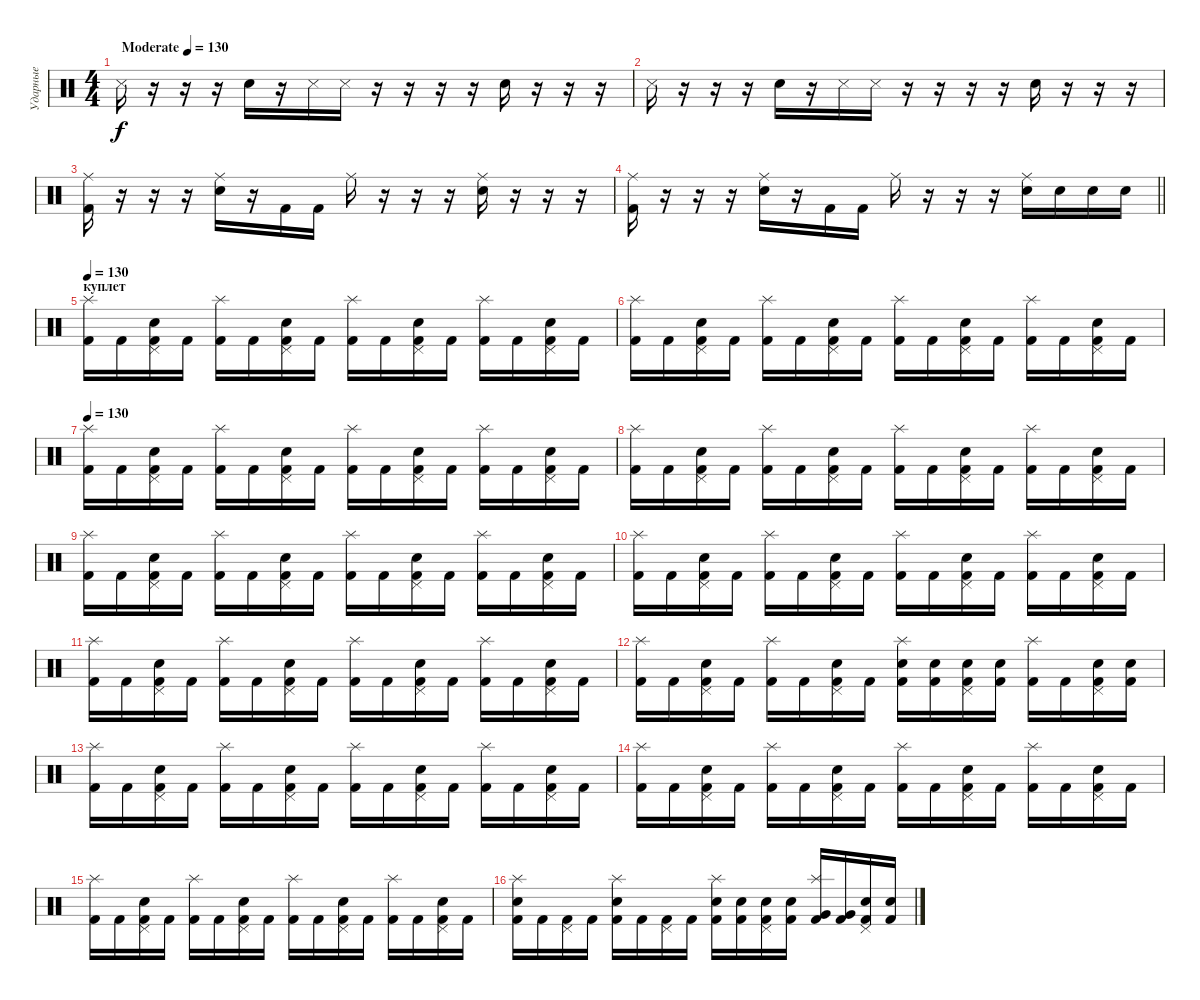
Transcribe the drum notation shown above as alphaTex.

\track ("Ударные" "Ударные") {instrument percussion}
\staff {score}
\articulation defaults
\ts (4 4)
\tempo (130 "Moderate")
\clef neutral
\ks c "Snare (side stick) 3".16{dy f}
r.16 r.16 r.16 "Hand Clap (hit)".16 r.16 "Snare (side stick) 3".16 "Snare (side stick) 3".16 r.16 r.16 r.16 r.16 "Hand Clap (hit)".16 r.16 r.16 r.16 |
"Snare (side stick) 3".16 r.16 r.16 r.16 "Hand Clap (hit)".16 r.16 "Snare (side stick) 3".16 "Snare (side stick) 3".16 r.16 r.16 r.16 r.16 "Hand Clap (hit)".16 r.16 r.16 r.16 |
("Ride (middle)" "Kick (hit) 2").16 r.16 r.16 r.16 ("Ride (middle)" "Electric Snare (hit)").16 r.16 "Kick (hit) 2".16 "Kick (hit) 2".16 "Ride (middle)".16 r.16 r.16 r.16 ("Ride (middle)" "Electric Snare (hit)").16 r.16 r.16 r.16 |
\barLineRight lightlight
("Ride (middle)" "Kick (hit) 2").16 r.16 r.16 r.16 ("Ride (middle)" "Electric Snare (hit)").16 r.16 "Kick (hit) 2".16 "Kick (hit) 2".16 "Ride (middle)".16 r.16 r.16 r.16 ("Ride (middle)" "Electric Snare (hit)").16 "Electric Snare (hit)".16 "Electric Snare (hit)".16 "Electric Snare (hit)".16 |
\section ("" "куплет")
\tempo 130
("Splash (hit)" "Kick (hit) 2").16 "Kick (hit) 2".16 ("Pedal Hi-Hat (hit)" "Electric Snare (hit)" "Kick (hit) 2").16 "Kick (hit) 2".16 ("Splash (hit)" "Kick (hit) 2").16 "Kick (hit) 2".16 ("Pedal Hi-Hat (hit)" "Electric Snare (hit)" "Kick (hit) 2").16 "Kick (hit) 2".16 ("Splash (hit)" "Kick (hit) 2").16 "Kick (hit) 2".16 ("Pedal Hi-Hat (hit)" "Electric Snare (hit)" "Kick (hit) 2").16 "Kick (hit) 2".16 ("Splash (hit)" "Kick (hit) 2").16 "Kick (hit) 2".16 ("Pedal Hi-Hat (hit)" "Electric Snare (hit)" "Kick (hit) 2").16 "Kick (hit) 2".16 |
("Splash (hit)" "Kick (hit) 2").16 "Kick (hit) 2".16 ("Pedal Hi-Hat (hit)" "Electric Snare (hit)" "Kick (hit) 2").16 "Kick (hit) 2".16 ("Splash (hit)" "Kick (hit) 2").16 "Kick (hit) 2".16 ("Pedal Hi-Hat (hit)" "Electric Snare (hit)" "Kick (hit) 2").16 "Kick (hit) 2".16 ("Splash (hit)" "Kick (hit) 2").16 "Kick (hit) 2".16 ("Pedal Hi-Hat (hit)" "Electric Snare (hit)" "Kick (hit) 2").16 "Kick (hit) 2".16 ("Splash (hit)" "Kick (hit) 2").16 "Kick (hit) 2".16 ("Pedal Hi-Hat (hit)" "Electric Snare (hit)" "Kick (hit) 2").16 "Kick (hit) 2".16 |
\tempo 130
("Splash (hit)" "Kick (hit) 2").16 "Kick (hit) 2".16 ("Pedal Hi-Hat (hit)" "Electric Snare (hit)" "Kick (hit) 2").16 "Kick (hit) 2".16 ("Splash (hit)" "Kick (hit) 2").16 "Kick (hit) 2".16 ("Pedal Hi-Hat (hit)" "Electric Snare (hit)" "Kick (hit) 2").16 "Kick (hit) 2".16 ("Splash (hit)" "Kick (hit) 2").16 "Kick (hit) 2".16 ("Pedal Hi-Hat (hit)" "Electric Snare (hit)" "Kick (hit) 2").16 "Kick (hit) 2".16 ("Splash (hit)" "Kick (hit) 2").16 "Kick (hit) 2".16 ("Pedal Hi-Hat (hit)" "Electric Snare (hit)" "Kick (hit) 2").16 "Kick (hit) 2".16 |
("Splash (hit)" "Kick (hit) 2").16 "Kick (hit) 2".16 ("Pedal Hi-Hat (hit)" "Electric Snare (hit)" "Kick (hit) 2").16 "Kick (hit) 2".16 ("Splash (hit)" "Kick (hit) 2").16 "Kick (hit) 2".16 ("Pedal Hi-Hat (hit)" "Electric Snare (hit)" "Kick (hit) 2").16 "Kick (hit) 2".16 ("Splash (hit)" "Kick (hit) 2").16 "Kick (hit) 2".16 ("Pedal Hi-Hat (hit)" "Electric Snare (hit)" "Kick (hit) 2").16 "Kick (hit) 2".16 ("Splash (hit)" "Kick (hit) 2").16 "Kick (hit) 2".16 ("Pedal Hi-Hat (hit)" "Electric Snare (hit)" "Kick (hit) 2").16 "Kick (hit) 2".16 |
("Splash (hit)" "Kick (hit) 2").16 "Kick (hit) 2".16 ("Pedal Hi-Hat (hit)" "Electric Snare (hit)" "Kick (hit) 2").16 "Kick (hit) 2".16 ("Splash (hit)" "Kick (hit) 2").16 "Kick (hit) 2".16 ("Pedal Hi-Hat (hit)" "Electric Snare (hit)" "Kick (hit) 2").16 "Kick (hit) 2".16 ("Splash (hit)" "Kick (hit) 2").16 "Kick (hit) 2".16 ("Pedal Hi-Hat (hit)" "Electric Snare (hit)" "Kick (hit) 2").16 "Kick (hit) 2".16 ("Splash (hit)" "Kick (hit) 2").16 "Kick (hit) 2".16 ("Pedal Hi-Hat (hit)" "Electric Snare (hit)" "Kick (hit) 2").16 "Kick (hit) 2".16 |
("Splash (hit)" "Kick (hit) 2").16 "Kick (hit) 2".16 ("Pedal Hi-Hat (hit)" "Electric Snare (hit)" "Kick (hit) 2").16 "Kick (hit) 2".16 ("Splash (hit)" "Kick (hit) 2").16 "Kick (hit) 2".16 ("Pedal Hi-Hat (hit)" "Electric Snare (hit)" "Kick (hit) 2").16 "Kick (hit) 2".16 ("Splash (hit)" "Kick (hit) 2").16 "Kick (hit) 2".16 ("Pedal Hi-Hat (hit)" "Electric Snare (hit)" "Kick (hit) 2").16 "Kick (hit) 2".16 ("Splash (hit)" "Kick (hit) 2").16 "Kick (hit) 2".16 ("Pedal Hi-Hat (hit)" "Electric Snare (hit)" "Kick (hit) 2").16 "Kick (hit) 2".16 |
("Splash (hit)" "Kick (hit) 2").16 "Kick (hit) 2".16 ("Pedal Hi-Hat (hit)" "Electric Snare (hit)" "Kick (hit) 2").16 "Kick (hit) 2".16 ("Splash (hit)" "Kick (hit) 2").16 "Kick (hit) 2".16 ("Pedal Hi-Hat (hit)" "Electric Snare (hit)" "Kick (hit) 2").16 "Kick (hit) 2".16 ("Splash (hit)" "Kick (hit) 2").16 "Kick (hit) 2".16 ("Pedal Hi-Hat (hit)" "Electric Snare (hit)" "Kick (hit) 2").16 "Kick (hit) 2".16 ("Splash (hit)" "Kick (hit) 2").16 "Kick (hit) 2".16 ("Pedal Hi-Hat (hit)" "Electric Snare (hit)" "Kick (hit) 2").16 "Kick (hit) 2".16 |
("Splash (hit)" "Kick (hit) 2").16 "Kick (hit) 2".16 ("Pedal Hi-Hat (hit)" "Electric Snare (hit)" "Kick (hit) 2").16 "Kick (hit) 2".16 ("Splash (hit)" "Kick (hit) 2").16 "Kick (hit) 2".16 ("Pedal Hi-Hat (hit)" "Electric Snare (hit)" "Kick (hit) 2").16 "Kick (hit) 2".16 ("Splash (hit)" "Electric Snare (hit)" "Kick (hit) 2").16 ("Electric Snare (hit)" "Kick (hit) 2").16 ("Pedal Hi-Hat (hit)" "Electric Snare (hit)" "Kick (hit) 2").16 ("Electric Snare (hit)" "Kick (hit) 2").16 ("Splash (hit)" "Kick (hit) 2").16 "Kick (hit) 2".16 ("Pedal Hi-Hat (hit)" "Electric Snare (hit)" "Kick (hit) 2").16 ("Electric Snare (hit)" "Kick (hit) 2").16 |
("Splash (hit)" "Kick (hit) 2").16 "Kick (hit) 2".16 ("Pedal Hi-Hat (hit)" "Electric Snare (hit)" "Kick (hit) 2").16 "Kick (hit) 2".16 ("Splash (hit)" "Kick (hit) 2").16 "Kick (hit) 2".16 ("Pedal Hi-Hat (hit)" "Electric Snare (hit)" "Kick (hit) 2").16 "Kick (hit) 2".16 ("Splash (hit)" "Kick (hit) 2").16 "Kick (hit) 2".16 ("Pedal Hi-Hat (hit)" "Electric Snare (hit)" "Kick (hit) 2").16 "Kick (hit) 2".16 ("Splash (hit)" "Kick (hit) 2").16 "Kick (hit) 2".16 ("Pedal Hi-Hat (hit)" "Electric Snare (hit)" "Kick (hit) 2").16 "Kick (hit) 2".16 |
("Splash (hit)" "Kick (hit) 2").16 "Kick (hit) 2".16 ("Pedal Hi-Hat (hit)" "Electric Snare (hit)" "Kick (hit) 2").16 "Kick (hit) 2".16 ("Splash (hit)" "Kick (hit) 2").16 "Kick (hit) 2".16 ("Pedal Hi-Hat (hit)" "Electric Snare (hit)" "Kick (hit) 2").16 "Kick (hit) 2".16 ("Splash (hit)" "Kick (hit) 2").16 "Kick (hit) 2".16 ("Pedal Hi-Hat (hit)" "Electric Snare (hit)" "Kick (hit) 2").16 "Kick (hit) 2".16 ("Splash (hit)" "Kick (hit) 2").16 "Kick (hit) 2".16 ("Pedal Hi-Hat (hit)" "Electric Snare (hit)" "Kick (hit) 2").16 "Kick (hit) 2".16 |
("Splash (hit)" "Kick (hit) 2").16 "Kick (hit) 2".16 ("Pedal Hi-Hat (hit)" "Electric Snare (hit)" "Kick (hit) 2").16 "Kick (hit) 2".16 ("Splash (hit)" "Kick (hit) 2").16 "Kick (hit) 2".16 ("Pedal Hi-Hat (hit)" "Electric Snare (hit)" "Kick (hit) 2").16 "Kick (hit) 2".16 ("Splash (hit)" "Kick (hit) 2").16 "Kick (hit) 2".16 ("Pedal Hi-Hat (hit)" "Electric Snare (hit)" "Kick (hit) 2").16 "Kick (hit) 2".16 ("Splash (hit)" "Kick (hit) 2").16 "Kick (hit) 2".16 ("Pedal Hi-Hat (hit)" "Electric Snare (hit)" "Kick (hit) 2").16 "Kick (hit) 2".16 |
("Splash (hit)" "Electric Snare (hit)" "Kick (hit) 2").16 "Kick (hit) 2".16 ("Pedal Hi-Hat (hit)" "Kick (hit) 2").16 "Kick (hit) 2".16 ("Splash (hit)" "Electric Snare (hit)" "Kick (hit) 2").16 "Kick (hit) 2".16 ("Pedal Hi-Hat (hit)" "Kick (hit) 2").16 "Kick (hit) 2".16 ("Splash (hit)" "Electric Snare (hit)" "Kick (hit) 2").16 ("Electric Snare (hit)" "Kick (hit) 2").16 ("Pedal Hi-Hat (hit)" "Electric Snare (hit)" "Kick (hit) 2").16 ("Electric Snare (hit)" "Kick (hit) 2").16 ("Splash (hit)" "Very Low Tom (hit)" "Kick (hit) 2").16 ("Very Low Tom (hit)" "Kick (hit) 2").16 ("Pedal Hi-Hat (hit)" "Electric Snare (hit)" "Kick (hit) 2").16 ("Electric Snare (hit)" "Kick (hit) 2").16
